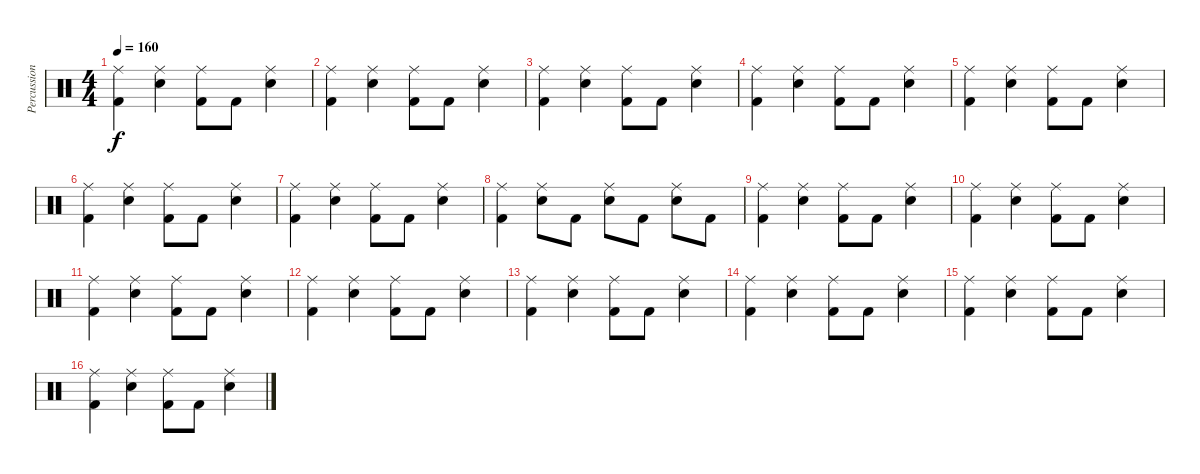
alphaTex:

\track ("Percussion" "Percussion") {instrument percussion}
\staff {score}
\articulation defaults
\ts (4 4)
\tempo 160
\clef neutral
\ks c
("Ride (middle)" "Kick (hit) 2").4{dy f} ("Ride (middle)" "Electric Snare (hit)").4 ("Ride (middle)" "Kick (hit) 2").8 "Kick (hit) 2".8 ("Ride (middle)" "Electric Snare (hit)").4 |
("Ride (middle)" "Kick (hit) 2").4 ("Ride (middle)" "Electric Snare (hit)").4 ("Ride (middle)" "Kick (hit) 2").8 "Kick (hit) 2".8 ("Ride (middle)" "Electric Snare (hit)").4 |
("Ride (middle)" "Kick (hit) 2").4 ("Ride (middle)" "Electric Snare (hit)").4 ("Ride (middle)" "Kick (hit) 2").8 "Kick (hit) 2".8 ("Ride (middle)" "Electric Snare (hit)").4 |
("Ride (middle)" "Kick (hit) 2").4 ("Ride (middle)" "Electric Snare (hit)").4 ("Ride (middle)" "Kick (hit) 2").8 "Kick (hit) 2".8 ("Ride (middle)" "Electric Snare (hit)").4 |
("Ride (middle)" "Kick (hit) 2").4 ("Ride (middle)" "Electric Snare (hit)").4 ("Ride (middle)" "Kick (hit) 2").8 "Kick (hit) 2".8 ("Ride (middle)" "Electric Snare (hit)").4 |
("Ride (middle)" "Kick (hit) 2").4 ("Ride (middle)" "Electric Snare (hit)").4 ("Ride (middle)" "Kick (hit) 2").8 "Kick (hit) 2".8 ("Ride (middle)" "Electric Snare (hit)").4 |
("Ride (middle)" "Kick (hit) 2").4 ("Ride (middle)" "Electric Snare (hit)").4 ("Ride (middle)" "Kick (hit) 2").8 "Kick (hit) 2".8 ("Ride (middle)" "Electric Snare (hit)").4 |
("Ride (middle)" "Kick (hit) 2").4 ("Ride (middle)" "Electric Snare (hit)").8 "Kick (hit) 2".8 ("Ride (middle)" "Electric Snare (hit)").8 "Kick (hit) 2".8 ("Ride (middle)" "Electric Snare (hit)").8 "Kick (hit) 2".8 |
("Ride (middle)" "Kick (hit) 2").4 ("Ride (middle)" "Electric Snare (hit)").4 ("Ride (middle)" "Kick (hit) 2").8 "Kick (hit) 2".8 ("Ride (middle)" "Electric Snare (hit)").4 |
("Ride (middle)" "Kick (hit) 2").4 ("Ride (middle)" "Electric Snare (hit)").4 ("Ride (middle)" "Kick (hit) 2").8 "Kick (hit) 2".8 ("Ride (middle)" "Electric Snare (hit)").4 |
("Ride (middle)" "Kick (hit) 2").4 ("Ride (middle)" "Electric Snare (hit)").4 ("Ride (middle)" "Kick (hit) 2").8 "Kick (hit) 2".8 ("Ride (middle)" "Electric Snare (hit)").4 |
("Ride (middle)" "Kick (hit) 2").4 ("Ride (middle)" "Electric Snare (hit)").4 ("Ride (middle)" "Kick (hit) 2").8 "Kick (hit) 2".8 ("Ride (middle)" "Electric Snare (hit)").4 |
("Ride (middle)" "Kick (hit) 2").4 ("Ride (middle)" "Electric Snare (hit)").4 ("Ride (middle)" "Kick (hit) 2").8 "Kick (hit) 2".8 ("Ride (middle)" "Electric Snare (hit)").4 |
("Ride (middle)" "Kick (hit) 2").4 ("Ride (middle)" "Electric Snare (hit)").4 ("Ride (middle)" "Kick (hit) 2").8 "Kick (hit) 2".8 ("Ride (middle)" "Electric Snare (hit)").4 |
("Ride (middle)" "Kick (hit) 2").4 ("Ride (middle)" "Electric Snare (hit)").4 ("Ride (middle)" "Kick (hit) 2").8 "Kick (hit) 2".8 ("Ride (middle)" "Electric Snare (hit)").4 |
("Ride (middle)" "Kick (hit) 2").4 ("Ride (middle)" "Electric Snare (hit)").4 ("Ride (middle)" "Kick (hit) 2").8 "Kick (hit) 2".8 ("Ride (middle)" "Electric Snare (hit)").4
